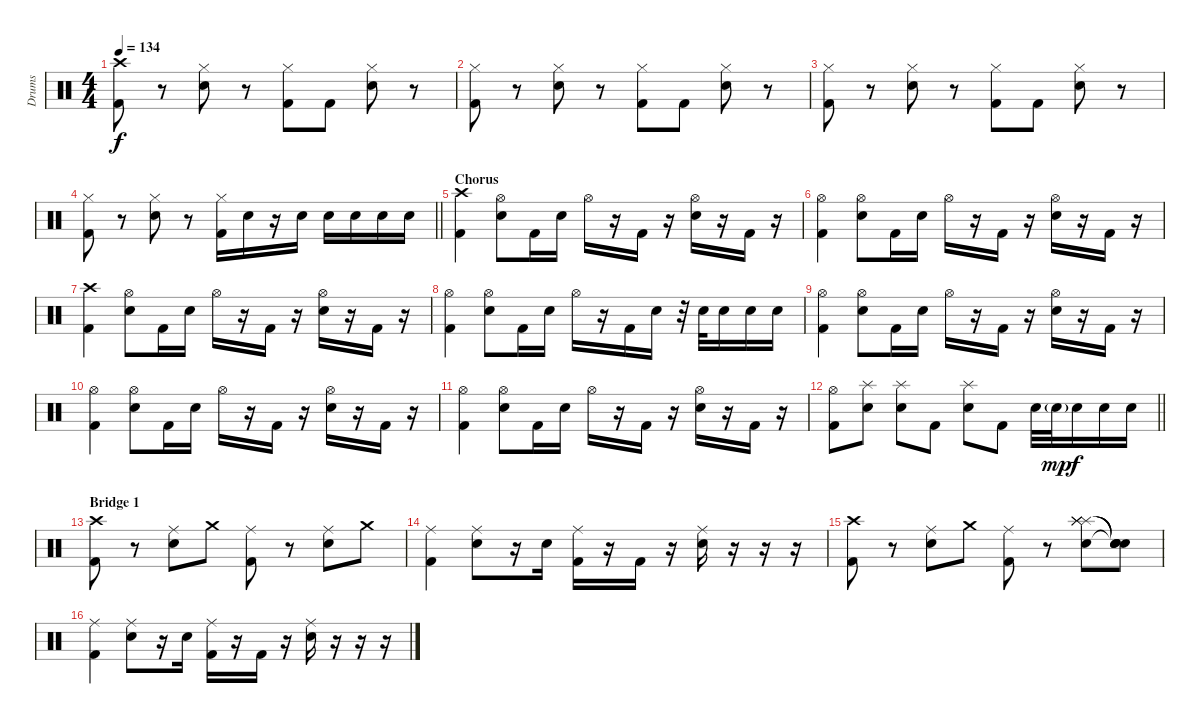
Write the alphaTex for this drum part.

\track ("Drums" "Drums") {instrument percussion}
\staff {score}
\articulation defaults
\ts (4 4)
\tempo 134
\clef neutral
\ks c
("Crash high (hit)" "Kick (hit) 2").8{dy f} r.8 ("Hi-Hat (closed)" "Electric Snare (hit)").8 r.8 ("Hi-Hat (closed)" "Kick (hit) 2").8 "Kick (hit) 2".8 ("Hi-Hat (closed)" "Electric Snare (hit)").8 r.8 |
("Hi-Hat (closed)" "Kick (hit) 2").8 r.8 ("Hi-Hat (closed)" "Electric Snare (hit)").8 r.8 ("Hi-Hat (closed)" "Kick (hit) 2").8 "Kick (hit) 2".8 ("Hi-Hat (closed)" "Electric Snare (hit)").8 r.8 |
("Hi-Hat (closed)" "Kick (hit) 2").8 r.8 ("Hi-Hat (closed)" "Electric Snare (hit)").8 r.8 ("Hi-Hat (closed)" "Kick (hit) 2").8 "Kick (hit) 2".8 ("Hi-Hat (closed)" "Electric Snare (hit)").8 r.8 |
\barLineRight lightlight
("Hi-Hat (closed)" "Kick (hit) 2").8 r.8 ("Hi-Hat (closed)" "Electric Snare (hit)").8 r.8 ("Hi-Hat (closed)" "Kick (hit) 2").16 "Electric Snare (hit)".16 r.16 "Electric Snare (hit)".16 "Electric Snare (hit)".16 "Electric Snare (hit)".16 "Electric Snare (hit)".16 "Electric Snare (hit)".16 |
\section ("" "Chorus")
("Crash high (hit)" "Kick (hit) 2").4 ("Hi-Hat (open)" "Electric Snare (hit)").8 "Kick (hit) 2".16 "Electric Snare (hit)".16 "Hi-Hat (open)".16 r.16 "Kick (hit) 2".16 r.16 ("Hi-Hat (open)" "Electric Snare (hit)").16 r.16 "Kick (hit) 2".16 r.16 |
("Hi-Hat (open)" "Kick (hit) 2").4 ("Hi-Hat (open)" "Electric Snare (hit)").8 "Kick (hit) 2".16 "Electric Snare (hit)".16 "Hi-Hat (open)".16 r.16 "Kick (hit) 2".16 r.16 ("Hi-Hat (open)" "Electric Snare (hit)").16 r.16 "Kick (hit) 2".16 r.16 |
("Crash high (hit)" "Kick (hit) 2").4 ("Hi-Hat (open)" "Electric Snare (hit)").8 "Kick (hit) 2".16 "Electric Snare (hit)".16 "Hi-Hat (open)".16 r.16 "Kick (hit) 2".16 r.16 ("Hi-Hat (open)" "Electric Snare (hit)").16 r.16 "Kick (hit) 2".16 r.16 |
("Hi-Hat (open)" "Kick (hit) 2").4 ("Hi-Hat (open)" "Electric Snare (hit)").8 "Kick (hit) 2".16 "Electric Snare (hit)".16 "Hi-Hat (open)".16 r.16 "Kick (hit) 2".16 "Electric Snare (hit)".16 r.32 "Electric Snare (hit)".32 "Electric Snare (hit)".16 "Electric Snare (hit)".16 "Electric Snare (hit)".16 |
("Hi-Hat (open)" "Kick (hit) 2").4 ("Hi-Hat (open)" "Electric Snare (hit)").8 "Kick (hit) 2".16 "Electric Snare (hit)".16 "Hi-Hat (open)".16 r.16 "Kick (hit) 2".16 r.16 ("Hi-Hat (open)" "Electric Snare (hit)").16 r.16 "Kick (hit) 2".16 r.16 |
("Hi-Hat (open)" "Kick (hit) 2").4 ("Hi-Hat (open)" "Electric Snare (hit)").8 "Kick (hit) 2".16 "Electric Snare (hit)".16 "Hi-Hat (open)".16 r.16 "Kick (hit) 2".16 r.16 ("Hi-Hat (open)" "Electric Snare (hit)").16 r.16 "Kick (hit) 2".16 r.16 |
("Hi-Hat (open)" "Kick (hit) 2").4 ("Hi-Hat (open)" "Electric Snare (hit)").8 "Kick (hit) 2".16 "Electric Snare (hit)".16 "Hi-Hat (open)".16 r.16 "Kick (hit) 2".16 r.16 ("Hi-Hat (open)" "Electric Snare (hit)").16 r.16 "Kick (hit) 2".16 r.16 |
\barLineRight lightlight
("Hi-Hat (open)" "Kick (hit) 2").8 ("Splash (hit)" "Electric Snare (hit)").8 ("Splash (hit)" "Electric Snare (hit)").8 "Kick (hit) 2".8 ("Splash (hit)" "Electric Snare (hit)").8 "Kick (hit) 2".8 "Electric Snare (hit)".32 "Electric Snare (hit)"{g}.32{dy mp} "Electric Snare (hit)".16{dy f} "Electric Snare (hit)".16 "Electric Snare (hit)".16 |
\section ("" "Bridge 1")
("Crash high (hit)" "Kick (hit) 2").8 r.8 ("Ride (middle)" "Electric Snare (hit)").8 "Crash medium (hit)".8 ("Ride (middle)" "Kick (hit) 2").8 r.8 ("Ride (middle)" "Electric Snare (hit)").8 "Crash medium (hit)".8 |
("Ride (middle)" "Kick (hit) 2").4 ("Ride (middle)" "Electric Snare (hit)").8 r.16 "Electric Snare (hit)".16 ("Ride (middle)" "Kick (hit) 2").16 r.16 "Kick (hit) 2".16 r.16 ("Ride (middle)" "Electric Snare (hit)").16 r.16 r.16 r.16 |
("Crash high (hit)" "Kick (hit) 2").8 r.8 ("Ride (middle)" "Electric Snare (hit)").8 "Crash medium (hit)".8 ("Ride (middle)" "Kick (hit) 2").8 r.8 ("Splash (hit)" "Splash (hit)" "Electric Snare (hit)" "Splash (hit)" "Splash (hit)").8 ("Snare (hit)"{t} "Snare (hit)"{t} "Snare (hit)"{t} "Snare (hit)"{t}).8 |
("Ride (middle)" "Kick (hit) 2").4 ("Ride (middle)" "Electric Snare (hit)").8 r.16 "Electric Snare (hit)".16 ("Ride (middle)" "Kick (hit) 2").16 r.16 "Kick (hit) 2".16 r.16 ("Ride (middle)" "Electric Snare (hit)").16 r.16 r.16 r.16
